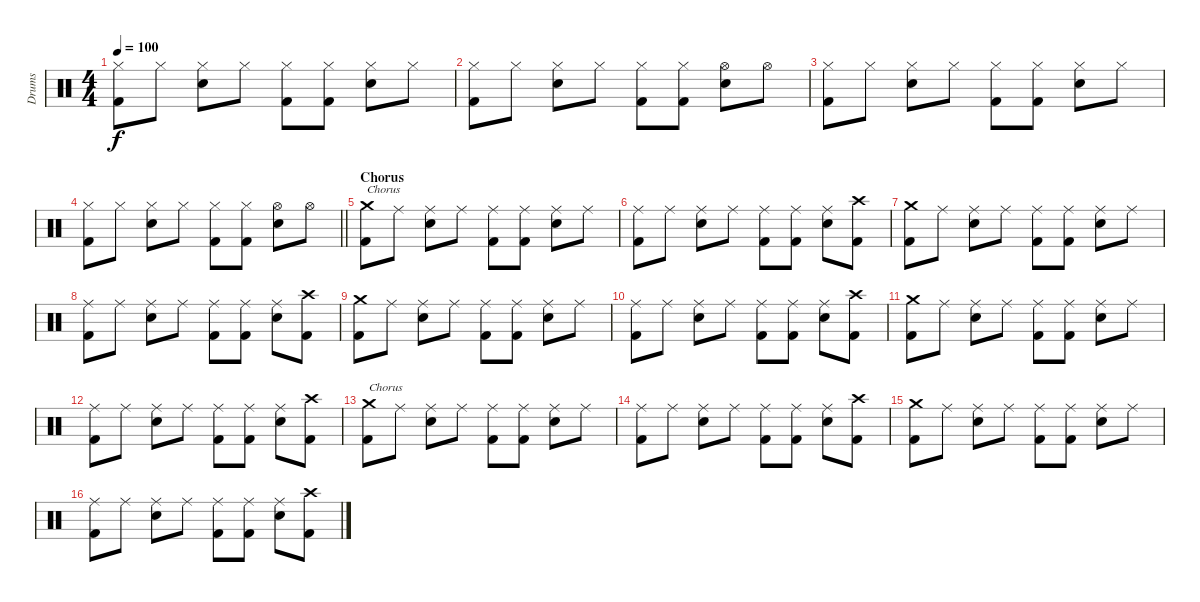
\track ("Drums" "Drums") {instrument percussion}
\staff {score}
\articulation defaults
\ts (4 4)
\tempo 100
\clef neutral
\ks c
("Kick (hit) 2" "Hi-Hat (closed)").8{dy f} "Hi-Hat (closed)".8 ("Electric Snare (hit)" "Hi-Hat (closed)").8 "Hi-Hat (closed)".8 ("Kick (hit) 2" "Hi-Hat (closed)").8 ("Kick (hit) 2" "Hi-Hat (closed)").8 ("Electric Snare (hit)" "Hi-Hat (closed)").8 "Hi-Hat (closed)".8 |
("Kick (hit) 2" "Hi-Hat (closed)").8 "Hi-Hat (closed)".8 ("Electric Snare (hit)" "Hi-Hat (closed)").8 "Hi-Hat (closed)".8 ("Kick (hit) 2" "Hi-Hat (closed)").8 ("Kick (hit) 2" "Hi-Hat (closed)").8 ("Electric Snare (hit)" "Hi-Hat (open)").8 "Hi-Hat (open)".8 |
("Kick (hit) 2" "Hi-Hat (closed)").8 "Hi-Hat (closed)".8 ("Electric Snare (hit)" "Hi-Hat (closed)").8 "Hi-Hat (closed)".8 ("Kick (hit) 2" "Hi-Hat (closed)").8 ("Kick (hit) 2" "Hi-Hat (closed)").8 ("Electric Snare (hit)" "Hi-Hat (closed)").8 "Hi-Hat (closed)".8 |
\barLineRight lightlight
("Kick (hit) 2" "Hi-Hat (closed)").8 "Hi-Hat (closed)".8 ("Electric Snare (hit)" "Hi-Hat (closed)").8 "Hi-Hat (closed)".8 ("Kick (hit) 2" "Hi-Hat (closed)").8 ("Kick (hit) 2" "Hi-Hat (closed)").8 ("Electric Snare (hit)" "Hi-Hat (open)").8 "Hi-Hat (open)".8 |
\section ("" "Chorus")
("Kick (hit) 2" "Crash medium (hit)").8{txt "Chorus "} "Ride (middle)".8 ("Electric Snare (hit)" "Ride (middle)").8 "Ride (middle)".8 ("Kick (hit) 2" "Ride (middle)").8 ("Kick (hit) 2" "Ride (middle)").8 ("Electric Snare (hit)" "Ride (middle)").8 "Ride (middle)".8 |
("Kick (hit) 2" "Ride (middle)").8 "Ride (middle)".8 ("Electric Snare (hit)" "Ride (middle)").8 "Ride (middle)".8 ("Kick (hit) 2" "Ride (middle)").8 ("Kick (hit) 2" "Ride (middle)").8 ("Electric Snare (hit)" "Ride (middle)").8 ("Kick (hit) 2" "Crash high (hit)").8 |
("Kick (hit) 2" "Crash medium (hit)").8 "Ride (middle)".8 ("Electric Snare (hit)" "Ride (middle)").8 "Ride (middle)".8 ("Kick (hit) 2" "Ride (middle)").8 ("Kick (hit) 2" "Ride (middle)").8 ("Electric Snare (hit)" "Ride (middle)").8 "Ride (middle)".8 |
("Kick (hit) 2" "Ride (middle)").8 "Ride (middle)".8 ("Electric Snare (hit)" "Ride (middle)").8 "Ride (middle)".8 ("Kick (hit) 2" "Ride (middle)").8 ("Kick (hit) 2" "Ride (middle)").8 ("Electric Snare (hit)" "Ride (middle)").8 ("Kick (hit) 2" "Crash high (hit)").8 |
("Kick (hit) 2" "Crash medium (hit)").8 "Ride (middle)".8 ("Electric Snare (hit)" "Ride (middle)").8 "Ride (middle)".8 ("Kick (hit) 2" "Ride (middle)").8 ("Kick (hit) 2" "Ride (middle)").8 ("Electric Snare (hit)" "Ride (middle)").8 "Ride (middle)".8 |
("Kick (hit) 2" "Ride (middle)").8 "Ride (middle)".8 ("Electric Snare (hit)" "Ride (middle)").8 "Ride (middle)".8 ("Kick (hit) 2" "Ride (middle)").8 ("Kick (hit) 2" "Ride (middle)").8 ("Electric Snare (hit)" "Ride (middle)").8 ("Kick (hit) 2" "Crash high (hit)").8 |
("Kick (hit) 2" "Crash medium (hit)").8 "Ride (middle)".8 ("Electric Snare (hit)" "Ride (middle)").8 "Ride (middle)".8 ("Kick (hit) 2" "Ride (middle)").8 ("Kick (hit) 2" "Ride (middle)").8 ("Electric Snare (hit)" "Ride (middle)").8 "Ride (middle)".8 |
("Kick (hit) 2" "Ride (middle)").8 "Ride (middle)".8 ("Electric Snare (hit)" "Ride (middle)").8 "Ride (middle)".8 ("Kick (hit) 2" "Ride (middle)").8 ("Kick (hit) 2" "Ride (middle)").8 ("Electric Snare (hit)" "Ride (middle)").8 ("Kick (hit) 2" "Crash high (hit)").8 |
("Kick (hit) 2" "Crash medium (hit)").8{txt "Chorus "} "Ride (middle)".8 ("Electric Snare (hit)" "Ride (middle)").8 "Ride (middle)".8 ("Kick (hit) 2" "Ride (middle)").8 ("Kick (hit) 2" "Ride (middle)").8 ("Electric Snare (hit)" "Ride (middle)").8 "Ride (middle)".8 |
("Kick (hit) 2" "Ride (middle)").8 "Ride (middle)".8 ("Electric Snare (hit)" "Ride (middle)").8 "Ride (middle)".8 ("Kick (hit) 2" "Ride (middle)").8 ("Kick (hit) 2" "Ride (middle)").8 ("Electric Snare (hit)" "Ride (middle)").8 ("Kick (hit) 2" "Crash high (hit)").8 |
("Kick (hit) 2" "Crash medium (hit)").8 "Ride (middle)".8 ("Electric Snare (hit)" "Ride (middle)").8 "Ride (middle)".8 ("Kick (hit) 2" "Ride (middle)").8 ("Kick (hit) 2" "Ride (middle)").8 ("Electric Snare (hit)" "Ride (middle)").8 "Ride (middle)".8 |
("Kick (hit) 2" "Ride (middle)").8 "Ride (middle)".8 ("Electric Snare (hit)" "Ride (middle)").8 "Ride (middle)".8 ("Kick (hit) 2" "Ride (middle)").8 ("Kick (hit) 2" "Ride (middle)").8 ("Electric Snare (hit)" "Ride (middle)").8 ("Kick (hit) 2" "Crash high (hit)").8
